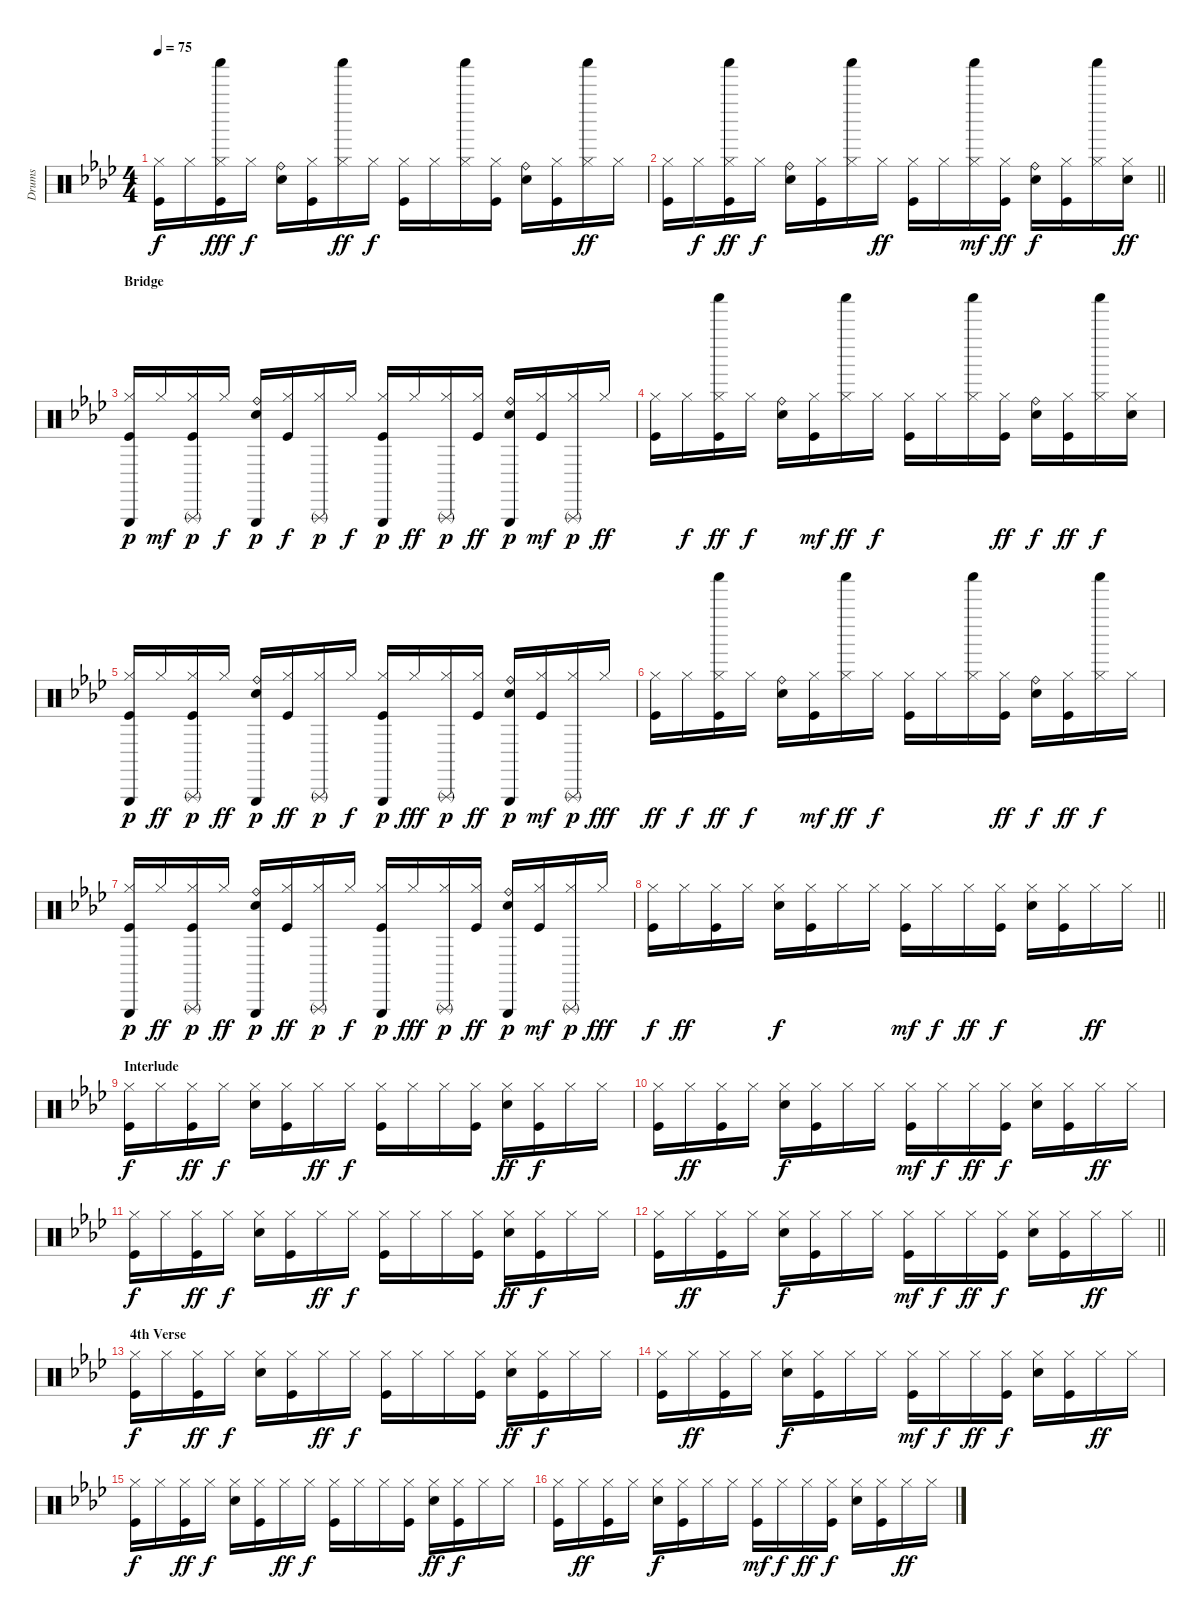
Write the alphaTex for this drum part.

\track ("Drums" "Drums") {instrument percussion}
\staff {score}
\articulation defaults
\ts (4 4)
\tempo 75
\clef neutral
\ks fminor
("Hi-Hat (closed)" "Kick (hit)").16{dy f} "Hi-Hat (closed)".16 ("Shaker (hit)" "Hi-Hat (closed)" "Kick (hit)").16{dy fff} "Hi-Hat (closed)".16{dy f} ("Ride (bell)" "Electric Snare (hit)").16 ("Hi-Hat (closed)" "Kick (hit)").16 ("Shaker (hit)" "Hi-Hat (closed)").16{dy ff} "Hi-Hat (closed)".16{dy f} ("Hi-Hat (closed)" "Kick (hit)").16 "Hi-Hat (closed)".16 ("Shaker (hit)" "Hi-Hat (closed)").16 ("Hi-Hat (closed)" "Kick (hit)").16 ("Ride (bell)" "Electric Snare (hit)").16 ("Hi-Hat (closed)" "Kick (hit)").16 ("Shaker (hit)" "Hi-Hat (closed)").16{dy ff} "Hi-Hat (closed)".16 |
\barLineRight lightlight
("Hi-Hat (closed)" "Kick (hit)").16 "Hi-Hat (closed)".16{dy f} ("Shaker (hit)" "Hi-Hat (closed)" "Kick (hit)").16{dy ff} "Hi-Hat (closed)".16{dy f} ("Ride (bell)" "Electric Snare (hit)").16 ("Hi-Hat (closed)" "Kick (hit)").16 ("Shaker (hit)" "Hi-Hat (closed)").16 "Hi-Hat (closed)".16{dy ff} ("Hi-Hat (closed)" "Kick (hit)").16 "Hi-Hat (closed)".16 ("Shaker (hit)" "Hi-Hat (closed)").16{dy mf} ("Hi-Hat (closed)" "Kick (hit)").16{dy ff} ("Ride (bell)" "Electric Snare (hit)").16{dy f} ("Hi-Hat (closed)" "Kick (hit)").16 ("Shaker (hit)" "Hi-Hat (closed)").16 ("Hi-Hat (closed)" "Electric Snare (hit)").16{dy ff} |
\section ("" "Bridge")
("Hi-Hat (closed)" "Triangle (hit)" "Kick (hit)").16{dy p} "Hi-Hat (closed)".16{dy mf} ("Hi-Hat (closed)" "Triangle (rnute)" "Kick (hit)").16{dy p} "Hi-Hat (closed)".16{dy f} ("Ride (bell)" "Triangle (hit)" "Electric Snare (hit)").16{dy p} ("Hi-Hat (closed)" "Kick (hit)").16{dy f} ("Hi-Hat (closed)" "Triangle (rnute)").16{dy p} "Hi-Hat (closed)".16{dy f} ("Hi-Hat (closed)" "Triangle (hit)" "Kick (hit)").16{dy p} "Hi-Hat (closed)".16{dy ff} ("Hi-Hat (closed)" "Triangle (rnute)").16{dy p} ("Hi-Hat (closed)" "Kick (hit)").16{dy ff} ("Ride (bell)" "Triangle (hit)" "Electric Snare (hit)").16{dy p} ("Hi-Hat (closed)" "Kick (hit)").16{dy mf} ("Hi-Hat (closed)" "Triangle (rnute)").16{dy p} "Hi-Hat (closed)".16{dy ff} |
("Hi-Hat (closed)" "Kick (hit)").16 "Hi-Hat (closed)".16{dy f} ("Shaker (hit)" "Hi-Hat (closed)" "Kick (hit)").16{dy ff} "Hi-Hat (closed)".16{dy f} ("Ride (bell)" "Electric Snare (hit)").16 ("Hi-Hat (closed)" "Kick (hit)").16{dy mf} ("Shaker (hit)" "Hi-Hat (closed)").16{dy ff} "Hi-Hat (closed)".16{dy f} ("Hi-Hat (closed)" "Kick (hit)").16 "Hi-Hat (closed)".16 ("Shaker (hit)" "Hi-Hat (closed)").16 ("Hi-Hat (closed)" "Kick (hit)").16{dy ff} ("Ride (bell)" "Electric Snare (hit)").16{dy f} ("Hi-Hat (closed)" "Kick (hit)").16{dy ff} ("Shaker (hit)" "Hi-Hat (closed)").16{dy f} ("Hi-Hat (closed)" "Electric Snare (hit)").16 |
("Hi-Hat (closed)" "Triangle (hit)" "Kick (hit)").16{dy p} "Hi-Hat (closed)".16{dy ff} ("Hi-Hat (closed)" "Triangle (rnute)" "Kick (hit)").16{dy p} "Hi-Hat (closed)".16{dy ff} ("Ride (bell)" "Triangle (hit)" "Electric Snare (hit)").16{dy p} ("Hi-Hat (closed)" "Kick (hit)").16{dy ff} ("Hi-Hat (closed)" "Triangle (rnute)").16{dy p} "Hi-Hat (closed)".16{dy f} ("Hi-Hat (closed)" "Triangle (hit)" "Kick (hit)").16{dy p} "Hi-Hat (closed)".16{dy fff} ("Hi-Hat (closed)" "Triangle (rnute)").16{dy p} ("Hi-Hat (closed)" "Kick (hit)").16{dy ff} ("Ride (bell)" "Triangle (hit)" "Electric Snare (hit)").16{dy p} ("Hi-Hat (closed)" "Kick (hit)").16{dy mf} ("Hi-Hat (closed)" "Triangle (rnute)").16{dy p} "Hi-Hat (closed)".16{dy fff} |
("Hi-Hat (closed)" "Kick (hit)").16{dy ff} "Hi-Hat (closed)".16{dy f} ("Shaker (hit)" "Hi-Hat (closed)" "Kick (hit)").16{dy ff} "Hi-Hat (closed)".16{dy f} ("Ride (bell)" "Electric Snare (hit)").16 ("Hi-Hat (closed)" "Kick (hit)").16{dy mf} ("Shaker (hit)" "Hi-Hat (closed)").16{dy ff} "Hi-Hat (closed)".16{dy f} ("Hi-Hat (closed)" "Kick (hit)").16 "Hi-Hat (closed)".16 ("Shaker (hit)" "Hi-Hat (closed)").16 ("Hi-Hat (closed)" "Kick (hit)").16{dy ff} ("Ride (bell)" "Electric Snare (hit)").16{dy f} ("Hi-Hat (closed)" "Kick (hit)").16{dy ff} ("Shaker (hit)" "Hi-Hat (closed)").16{dy f} "Hi-Hat (closed)".16 |
("Hi-Hat (closed)" "Triangle (hit)" "Kick (hit)").16{dy p} "Hi-Hat (closed)".16{dy ff} ("Hi-Hat (closed)" "Triangle (rnute)" "Kick (hit)").16{dy p} "Hi-Hat (closed)".16{dy ff} ("Ride (bell)" "Triangle (hit)" "Electric Snare (hit)").16{dy p} ("Hi-Hat (closed)" "Kick (hit)").16{dy ff} ("Hi-Hat (closed)" "Triangle (rnute)").16{dy p} "Hi-Hat (closed)".16{dy f} ("Hi-Hat (closed)" "Triangle (hit)" "Kick (hit)").16{dy p} "Hi-Hat (closed)".16{dy fff} ("Hi-Hat (closed)" "Triangle (rnute)").16{dy p} ("Hi-Hat (closed)" "Kick (hit)").16{dy ff} ("Ride (bell)" "Triangle (hit)" "Electric Snare (hit)").16{dy p} ("Hi-Hat (closed)" "Kick (hit)").16{dy mf} ("Hi-Hat (closed)" "Triangle (rnute)").16{dy p} "Hi-Hat (closed)".16{dy fff} |
\barLineRight lightlight
("Hi-Hat (closed)" "Kick (hit)").16{dy f} "Hi-Hat (closed)".16{dy ff} ("Hi-Hat (closed)" "Kick (hit)").16 "Hi-Hat (closed)".16 ("Hi-Hat (closed)" "Electric Snare (hit)").16{dy f} ("Hi-Hat (closed)" "Kick (hit)").16 "Hi-Hat (closed)".16 "Hi-Hat (closed)".16 ("Hi-Hat (closed)" "Kick (hit)").16{dy mf} "Hi-Hat (closed)".16{dy f} "Hi-Hat (closed)".16{dy ff} ("Hi-Hat (closed)" "Kick (hit)").16{dy f} ("Hi-Hat (closed)" "Electric Snare (hit)").16 ("Hi-Hat (closed)" "Kick (hit)").16 "Hi-Hat (closed)".16{dy ff} "Hi-Hat (closed)".16 |
\section ("" "Interlude")
("Hi-Hat (closed)" "Kick (hit)").16{dy f} "Hi-Hat (closed)".16 ("Hi-Hat (closed)" "Kick (hit)").16{dy ff} "Hi-Hat (closed)".16{dy f} ("Hi-Hat (closed)" "Electric Snare (hit)").16 ("Hi-Hat (closed)" "Kick (hit)").16 "Hi-Hat (closed)".16{dy ff} "Hi-Hat (closed)".16{dy f} ("Hi-Hat (closed)" "Kick (hit)").16 "Hi-Hat (closed)".16 "Hi-Hat (closed)".16 ("Hi-Hat (closed)" "Kick (hit)").16 ("Hi-Hat (closed)" "Electric Snare (hit)").16{dy ff} ("Hi-Hat (closed)" "Kick (hit)").16{dy f} "Hi-Hat (closed)".16 "Hi-Hat (closed)".16 |
("Hi-Hat (closed)" "Kick (hit)").16 "Hi-Hat (closed)".16{dy ff} ("Hi-Hat (closed)" "Kick (hit)").16 "Hi-Hat (closed)".16 ("Hi-Hat (closed)" "Electric Snare (hit)").16{dy f} ("Hi-Hat (closed)" "Kick (hit)").16 "Hi-Hat (closed)".16 "Hi-Hat (closed)".16 ("Hi-Hat (closed)" "Kick (hit)").16{dy mf} "Hi-Hat (closed)".16{dy f} "Hi-Hat (closed)".16{dy ff} ("Hi-Hat (closed)" "Kick (hit)").16{dy f} ("Hi-Hat (closed)" "Electric Snare (hit)").16 ("Hi-Hat (closed)" "Kick (hit)").16 "Hi-Hat (closed)".16{dy ff} "Hi-Hat (closed)".16 |
("Hi-Hat (closed)" "Kick (hit)").16{dy f} "Hi-Hat (closed)".16 ("Hi-Hat (closed)" "Kick (hit)").16{dy ff} "Hi-Hat (closed)".16{dy f} ("Hi-Hat (closed)" "Electric Snare (hit)").16 ("Hi-Hat (closed)" "Kick (hit)").16 "Hi-Hat (closed)".16{dy ff} "Hi-Hat (closed)".16{dy f} ("Hi-Hat (closed)" "Kick (hit)").16 "Hi-Hat (closed)".16 "Hi-Hat (closed)".16 ("Hi-Hat (closed)" "Kick (hit)").16 ("Hi-Hat (closed)" "Electric Snare (hit)").16{dy ff} ("Hi-Hat (closed)" "Kick (hit)").16{dy f} "Hi-Hat (closed)".16 "Hi-Hat (closed)".16 |
\barLineRight lightlight
("Hi-Hat (closed)" "Kick (hit)").16 "Hi-Hat (closed)".16{dy ff} ("Hi-Hat (closed)" "Kick (hit)").16 "Hi-Hat (closed)".16 ("Hi-Hat (closed)" "Electric Snare (hit)").16{dy f} ("Hi-Hat (closed)" "Kick (hit)").16 "Hi-Hat (closed)".16 "Hi-Hat (closed)".16 ("Hi-Hat (closed)" "Kick (hit)").16{dy mf} "Hi-Hat (closed)".16{dy f} "Hi-Hat (closed)".16{dy ff} ("Hi-Hat (closed)" "Kick (hit)").16{dy f} ("Hi-Hat (closed)" "Electric Snare (hit)").16 ("Hi-Hat (closed)" "Kick (hit)").16 "Hi-Hat (closed)".16{dy ff} "Hi-Hat (closed)".16 |
\section ("" "4th Verse")
("Hi-Hat (closed)" "Kick (hit)").16{dy f} "Hi-Hat (closed)".16 ("Hi-Hat (closed)" "Kick (hit)").16{dy ff} "Hi-Hat (closed)".16{dy f} ("Hi-Hat (closed)" "Electric Snare (hit)").16 ("Hi-Hat (closed)" "Kick (hit)").16 "Hi-Hat (closed)".16{dy ff} "Hi-Hat (closed)".16{dy f} ("Hi-Hat (closed)" "Kick (hit)").16 "Hi-Hat (closed)".16 "Hi-Hat (closed)".16 ("Hi-Hat (closed)" "Kick (hit)").16 ("Hi-Hat (closed)" "Electric Snare (hit)").16{dy ff} ("Hi-Hat (closed)" "Kick (hit)").16{dy f} "Hi-Hat (closed)".16 "Hi-Hat (closed)".16 |
("Hi-Hat (closed)" "Kick (hit)").16 "Hi-Hat (closed)".16{dy ff} ("Hi-Hat (closed)" "Kick (hit)").16 "Hi-Hat (closed)".16 ("Hi-Hat (closed)" "Electric Snare (hit)").16{dy f} ("Hi-Hat (closed)" "Kick (hit)").16 "Hi-Hat (closed)".16 "Hi-Hat (closed)".16 ("Hi-Hat (closed)" "Kick (hit)").16{dy mf} "Hi-Hat (closed)".16{dy f} "Hi-Hat (closed)".16{dy ff} ("Hi-Hat (closed)" "Kick (hit)").16{dy f} ("Hi-Hat (closed)" "Electric Snare (hit)").16 ("Hi-Hat (closed)" "Kick (hit)").16 "Hi-Hat (closed)".16{dy ff} "Hi-Hat (closed)".16 |
("Hi-Hat (closed)" "Kick (hit)").16{dy f} "Hi-Hat (closed)".16 ("Hi-Hat (closed)" "Kick (hit)").16{dy ff} "Hi-Hat (closed)".16{dy f} ("Hi-Hat (closed)" "Electric Snare (hit)").16 ("Hi-Hat (closed)" "Kick (hit)").16 "Hi-Hat (closed)".16{dy ff} "Hi-Hat (closed)".16{dy f} ("Hi-Hat (closed)" "Kick (hit)").16 "Hi-Hat (closed)".16 "Hi-Hat (closed)".16 ("Hi-Hat (closed)" "Kick (hit)").16 ("Hi-Hat (closed)" "Electric Snare (hit)").16{dy ff} ("Hi-Hat (closed)" "Kick (hit)").16{dy f} "Hi-Hat (closed)".16 "Hi-Hat (closed)".16 |
("Hi-Hat (closed)" "Kick (hit)").16 "Hi-Hat (closed)".16{dy ff} ("Hi-Hat (closed)" "Kick (hit)").16 "Hi-Hat (closed)".16 ("Hi-Hat (closed)" "Electric Snare (hit)").16{dy f} ("Hi-Hat (closed)" "Kick (hit)").16 "Hi-Hat (closed)".16 "Hi-Hat (closed)".16 ("Hi-Hat (closed)" "Kick (hit)").16{dy mf} "Hi-Hat (closed)".16{dy f} "Hi-Hat (closed)".16{dy ff} ("Hi-Hat (closed)" "Kick (hit)").16{dy f} ("Hi-Hat (closed)" "Electric Snare (hit)").16 ("Hi-Hat (closed)" "Kick (hit)").16 "Hi-Hat (closed)".16{dy ff} "Hi-Hat (closed)".16
